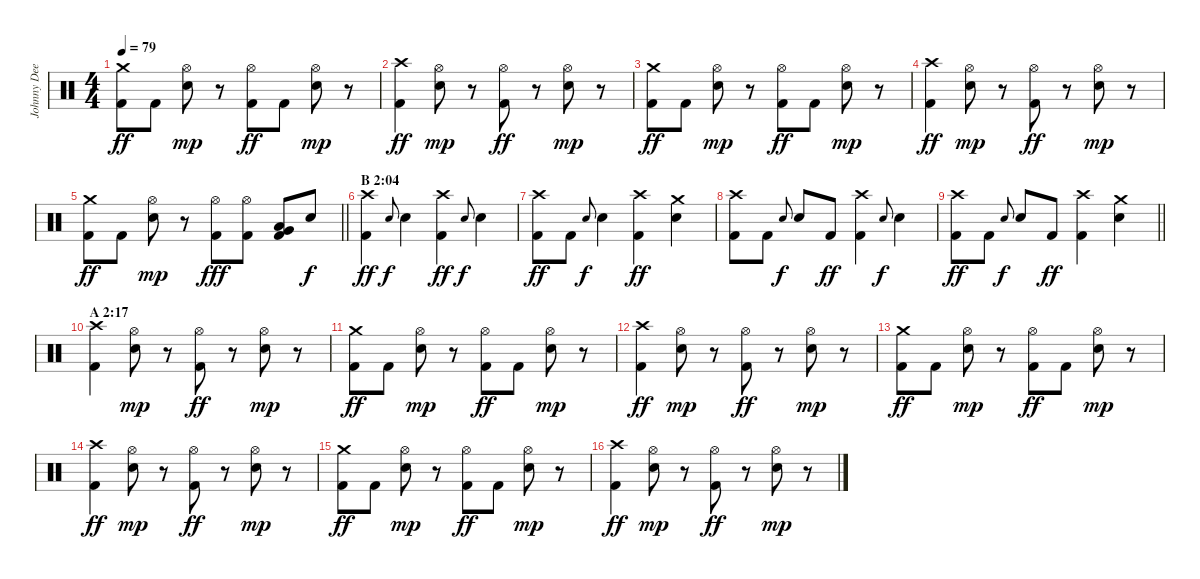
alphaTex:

\track ("Johnny Dee (drums)" "Johnny Dee") {instrument percussion}
\staff {score}
\articulation defaults
\ts (4 4)
\tempo 79
\clef neutral
\ks c
("Crash medium (hit)" "Kick (hit) 2").8{dy ff} "Kick (hit) 2".8 ("Hi-Hat (open)" "Electric Snare (hit)").8{dy mp} r.8 ("Hi-Hat (open)" "Kick (hit) 2").8{dy ff} "Kick (hit) 2".8 ("Hi-Hat (open)" "Electric Snare (hit)").8{dy mp} r.8 |
("Crash high (hit)" "Kick (hit) 2").4{dy ff} ("Hi-Hat (open)" "Electric Snare (hit)").8{dy mp} r.8 ("Hi-Hat (open)" "Kick (hit) 2").8{dy ff} r.8 ("Hi-Hat (open)" "Electric Snare (hit)").8{dy mp} r.8 |
("Crash medium (hit)" "Kick (hit) 2").8{dy ff} "Kick (hit) 2".8 ("Hi-Hat (open)" "Electric Snare (hit)").8{dy mp} r.8 ("Hi-Hat (open)" "Kick (hit) 2").8{dy ff} "Kick (hit) 2".8 ("Hi-Hat (open)" "Electric Snare (hit)").8{dy mp} r.8 |
("Crash high (hit)" "Kick (hit) 2").4{dy ff} ("Hi-Hat (open)" "Electric Snare (hit)").8{dy mp} r.8 ("Hi-Hat (open)" "Kick (hit) 2").8{dy ff} r.8 ("Hi-Hat (open)" "Electric Snare (hit)").8{dy mp} r.8 |
\barLineRight lightlight
("Crash medium (hit)" "Kick (hit) 2").8{dy ff} "Kick (hit) 2".8 ("Hi-Hat (open)" "Electric Snare (hit)").8{dy mp} r.8 ("Hi-Hat (open)" "Kick (hit) 2").8{dy fff} ("Hi-Hat (open)" "Kick (hit) 2").8 ("Very Low Tom (hit)" "Low Tom (hit)" "Kick (hit) 2").8 "Electric Snare (hit)".8{dy f} |
\section ("" "B 2:04")
("Crash high (hit)" "Kick (hit) 2").4{dy ff} "Electric Snare (hit)".8{gr onbeat dy f} "Electric Snare (hit)".4 ("Crash high (hit)" "Kick (hit) 2").4{dy ff} "Electric Snare (hit)".8{gr onbeat dy f} "Electric Snare (hit)".4 |
("Crash high (hit)" "Kick (hit) 2").8{dy ff} "Kick (hit) 2".8 "Electric Snare (hit)".8{gr onbeat dy f} "Electric Snare (hit)".4 ("Crash high (hit)" "Kick (hit) 2").4{dy ff} ("Crash medium (hit)" "Electric Snare (hit)").4 |
("Crash high (hit)" "Kick (hit) 2").8 "Kick (hit) 2".8 "Electric Snare (hit)".8{gr onbeat dy f} "Electric Snare (hit)".8 "Kick (hit) 2".8{dy ff} ("Crash high (hit)" "Kick (hit) 2").4 "Electric Snare (hit)".8{gr onbeat dy f} "Electric Snare (hit)".4 |
\barLineRight lightlight
("Crash high (hit)" "Kick (hit) 2").8{dy ff} "Kick (hit) 2".8 "Electric Snare (hit)".8{gr onbeat dy f} "Electric Snare (hit)".8 "Kick (hit) 2".8{dy ff} ("Crash high (hit)" "Kick (hit) 2").4 ("Crash medium (hit)" "Electric Snare (hit)").4 |
\section ("" "A 2:17")
("Crash high (hit)" "Kick (hit) 2").4 ("Hi-Hat (open)" "Electric Snare (hit)").8{dy mp} r.8 ("Hi-Hat (open)" "Kick (hit) 2").8{dy ff} r.8 ("Hi-Hat (open)" "Electric Snare (hit)").8{dy mp} r.8 |
("Crash medium (hit)" "Kick (hit) 2").8{dy ff} "Kick (hit) 2".8 ("Hi-Hat (open)" "Electric Snare (hit)").8{dy mp} r.8 ("Hi-Hat (open)" "Kick (hit) 2").8{dy ff} "Kick (hit) 2".8 ("Hi-Hat (open)" "Electric Snare (hit)").8{dy mp} r.8 |
("Crash high (hit)" "Kick (hit) 2").4{dy ff} ("Hi-Hat (open)" "Electric Snare (hit)").8{dy mp} r.8 ("Hi-Hat (open)" "Kick (hit) 2").8{dy ff} r.8 ("Hi-Hat (open)" "Electric Snare (hit)").8{dy mp} r.8 |
("Crash medium (hit)" "Kick (hit) 2").8{dy ff} "Kick (hit) 2".8 ("Hi-Hat (open)" "Electric Snare (hit)").8{dy mp} r.8 ("Hi-Hat (open)" "Kick (hit) 2").8{dy ff} "Kick (hit) 2".8 ("Hi-Hat (open)" "Electric Snare (hit)").8{dy mp} r.8 |
("Crash high (hit)" "Kick (hit) 2").4{dy ff} ("Hi-Hat (open)" "Electric Snare (hit)").8{dy mp} r.8 ("Hi-Hat (open)" "Kick (hit) 2").8{dy ff} r.8 ("Hi-Hat (open)" "Electric Snare (hit)").8{dy mp} r.8 |
("Crash medium (hit)" "Kick (hit) 2").8{dy ff} "Kick (hit) 2".8 ("Hi-Hat (open)" "Electric Snare (hit)").8{dy mp} r.8 ("Hi-Hat (open)" "Kick (hit) 2").8{dy ff} "Kick (hit) 2".8 ("Hi-Hat (open)" "Electric Snare (hit)").8{dy mp} r.8 |
("Crash high (hit)" "Kick (hit) 2").4{dy ff} ("Hi-Hat (open)" "Electric Snare (hit)").8{dy mp} r.8 ("Hi-Hat (open)" "Kick (hit) 2").8{dy ff} r.8 ("Hi-Hat (open)" "Electric Snare (hit)").8{dy mp} r.8
